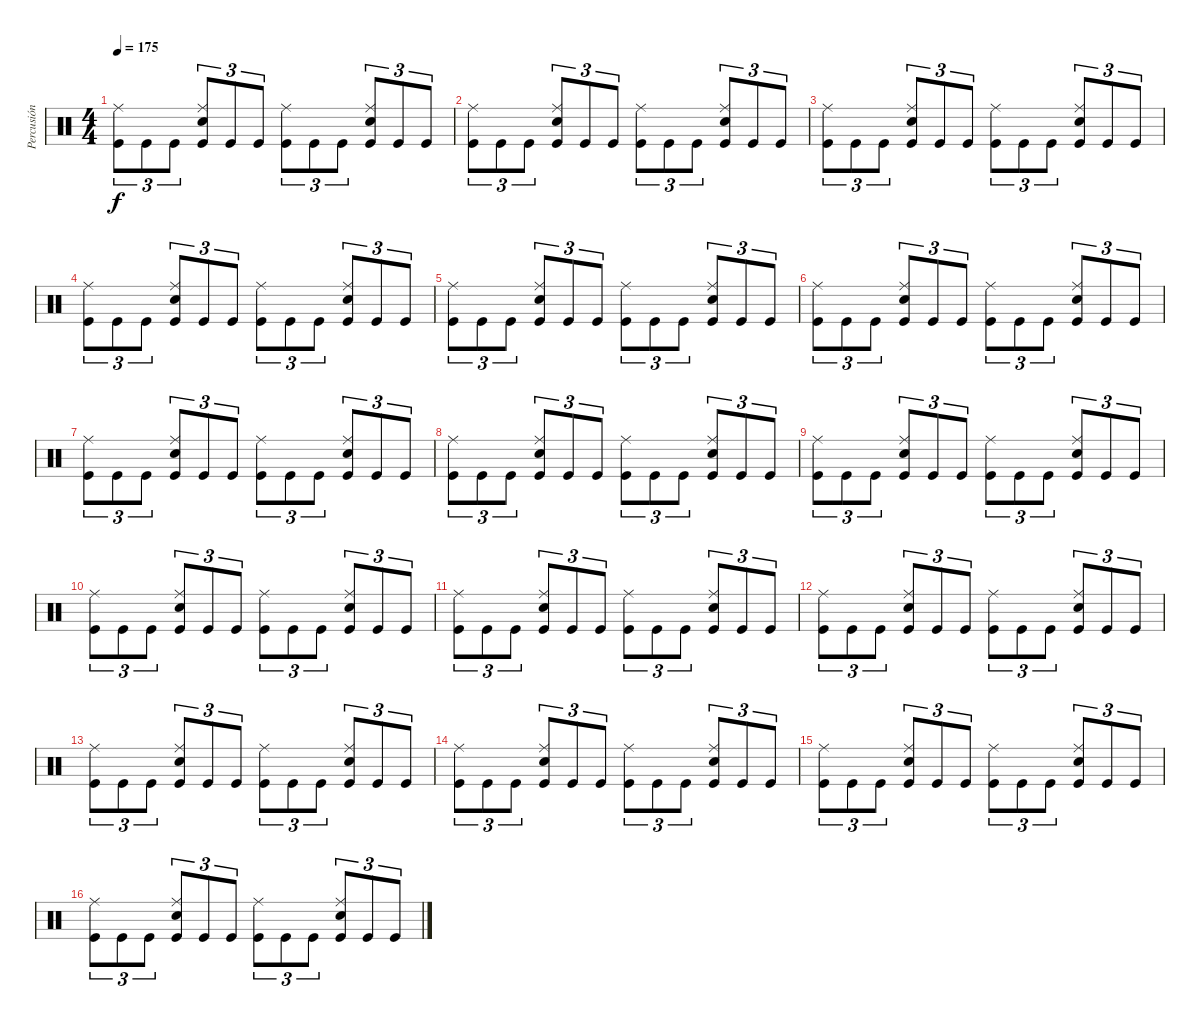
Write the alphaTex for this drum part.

\track ("Percusión" "Percusión") {instrument percussion}
\staff {score}
\articulation defaults
\ts (4 4)
\tempo 175
\clef neutral
\ks c
("Kick (hit)" "Ride (middle)").8{tu (3 2) dy f} "Kick (hit)".8{tu (3 2)} "Kick (hit)".8{tu (3 2)} ("Kick (hit)" "Electric Snare (hit)" "Ride (middle)").8{tu (3 2)} "Kick (hit)".8{tu (3 2)} "Kick (hit)".8{tu (3 2)} ("Kick (hit)" "Ride (middle)").8{tu (3 2)} "Kick (hit)".8{tu (3 2)} "Kick (hit)".8{tu (3 2)} ("Kick (hit)" "Electric Snare (hit)" "Ride (middle)").8{tu (3 2)} "Kick (hit)".8{tu (3 2)} "Kick (hit)".8{tu (3 2)} |
("Kick (hit)" "Ride (middle)").8{tu (3 2)} "Kick (hit)".8{tu (3 2)} "Kick (hit)".8{tu (3 2)} ("Kick (hit)" "Electric Snare (hit)" "Ride (middle)").8{tu (3 2)} "Kick (hit)".8{tu (3 2)} "Kick (hit)".8{tu (3 2)} ("Kick (hit)" "Ride (middle)").8{tu (3 2)} "Kick (hit)".8{tu (3 2)} "Kick (hit)".8{tu (3 2)} ("Kick (hit)" "Electric Snare (hit)" "Ride (middle)").8{tu (3 2)} "Kick (hit)".8{tu (3 2)} "Kick (hit)".8{tu (3 2)} |
("Kick (hit)" "Ride (middle)").8{tu (3 2)} "Kick (hit)".8{tu (3 2)} "Kick (hit)".8{tu (3 2)} ("Kick (hit)" "Electric Snare (hit)" "Ride (middle)").8{tu (3 2)} "Kick (hit)".8{tu (3 2)} "Kick (hit)".8{tu (3 2)} ("Kick (hit)" "Ride (middle)").8{tu (3 2)} "Kick (hit)".8{tu (3 2)} "Kick (hit)".8{tu (3 2)} ("Kick (hit)" "Electric Snare (hit)" "Ride (middle)").8{tu (3 2)} "Kick (hit)".8{tu (3 2)} "Kick (hit)".8{tu (3 2)} |
("Kick (hit)" "Ride (middle)").8{tu (3 2)} "Kick (hit)".8{tu (3 2)} "Kick (hit)".8{tu (3 2)} ("Kick (hit)" "Electric Snare (hit)" "Ride (middle)").8{tu (3 2)} "Kick (hit)".8{tu (3 2)} "Kick (hit)".8{tu (3 2)} ("Kick (hit)" "Ride (middle)").8{tu (3 2)} "Kick (hit)".8{tu (3 2)} "Kick (hit)".8{tu (3 2)} ("Kick (hit)" "Electric Snare (hit)" "Ride (middle)").8{tu (3 2)} "Kick (hit)".8{tu (3 2)} "Kick (hit)".8{tu (3 2)} |
("Kick (hit)" "Ride (middle)").8{tu (3 2)} "Kick (hit)".8{tu (3 2)} "Kick (hit)".8{tu (3 2)} ("Kick (hit)" "Electric Snare (hit)" "Ride (middle)").8{tu (3 2)} "Kick (hit)".8{tu (3 2)} "Kick (hit)".8{tu (3 2)} ("Kick (hit)" "Ride (middle)").8{tu (3 2)} "Kick (hit)".8{tu (3 2)} "Kick (hit)".8{tu (3 2)} ("Kick (hit)" "Electric Snare (hit)" "Ride (middle)").8{tu (3 2)} "Kick (hit)".8{tu (3 2)} "Kick (hit)".8{tu (3 2)} |
("Kick (hit)" "Ride (middle)").8{tu (3 2)} "Kick (hit)".8{tu (3 2)} "Kick (hit)".8{tu (3 2)} ("Kick (hit)" "Electric Snare (hit)" "Ride (middle)").8{tu (3 2)} "Kick (hit)".8{tu (3 2)} "Kick (hit)".8{tu (3 2)} ("Kick (hit)" "Ride (middle)").8{tu (3 2)} "Kick (hit)".8{tu (3 2)} "Kick (hit)".8{tu (3 2)} ("Kick (hit)" "Electric Snare (hit)" "Ride (middle)").8{tu (3 2)} "Kick (hit)".8{tu (3 2)} "Kick (hit)".8{tu (3 2)} |
("Kick (hit)" "Ride (middle)").8{tu (3 2)} "Kick (hit)".8{tu (3 2)} "Kick (hit)".8{tu (3 2)} ("Kick (hit)" "Electric Snare (hit)" "Ride (middle)").8{tu (3 2)} "Kick (hit)".8{tu (3 2)} "Kick (hit)".8{tu (3 2)} ("Kick (hit)" "Ride (middle)").8{tu (3 2)} "Kick (hit)".8{tu (3 2)} "Kick (hit)".8{tu (3 2)} ("Kick (hit)" "Electric Snare (hit)" "Ride (middle)").8{tu (3 2)} "Kick (hit)".8{tu (3 2)} "Kick (hit)".8{tu (3 2)} |
("Kick (hit)" "Ride (middle)").8{tu (3 2)} "Kick (hit)".8{tu (3 2)} "Kick (hit)".8{tu (3 2)} ("Kick (hit)" "Electric Snare (hit)" "Ride (middle)").8{tu (3 2)} "Kick (hit)".8{tu (3 2)} "Kick (hit)".8{tu (3 2)} ("Kick (hit)" "Ride (middle)").8{tu (3 2)} "Kick (hit)".8{tu (3 2)} "Kick (hit)".8{tu (3 2)} ("Kick (hit)" "Electric Snare (hit)" "Ride (middle)").8{tu (3 2)} "Kick (hit)".8{tu (3 2)} "Kick (hit)".8{tu (3 2)} |
("Kick (hit)" "Ride (middle)").8{tu (3 2)} "Kick (hit)".8{tu (3 2)} "Kick (hit)".8{tu (3 2)} ("Kick (hit)" "Electric Snare (hit)" "Ride (middle)").8{tu (3 2)} "Kick (hit)".8{tu (3 2)} "Kick (hit)".8{tu (3 2)} ("Kick (hit)" "Ride (middle)").8{tu (3 2)} "Kick (hit)".8{tu (3 2)} "Kick (hit)".8{tu (3 2)} ("Kick (hit)" "Electric Snare (hit)" "Ride (middle)").8{tu (3 2)} "Kick (hit)".8{tu (3 2)} "Kick (hit)".8{tu (3 2)} |
("Kick (hit)" "Ride (middle)").8{tu (3 2)} "Kick (hit)".8{tu (3 2)} "Kick (hit)".8{tu (3 2)} ("Kick (hit)" "Electric Snare (hit)" "Ride (middle)").8{tu (3 2)} "Kick (hit)".8{tu (3 2)} "Kick (hit)".8{tu (3 2)} ("Kick (hit)" "Ride (middle)").8{tu (3 2)} "Kick (hit)".8{tu (3 2)} "Kick (hit)".8{tu (3 2)} ("Kick (hit)" "Electric Snare (hit)" "Ride (middle)").8{tu (3 2)} "Kick (hit)".8{tu (3 2)} "Kick (hit)".8{tu (3 2)} |
("Kick (hit)" "Ride (middle)").8{tu (3 2)} "Kick (hit)".8{tu (3 2)} "Kick (hit)".8{tu (3 2)} ("Kick (hit)" "Electric Snare (hit)" "Ride (middle)").8{tu (3 2)} "Kick (hit)".8{tu (3 2)} "Kick (hit)".8{tu (3 2)} ("Kick (hit)" "Ride (middle)").8{tu (3 2)} "Kick (hit)".8{tu (3 2)} "Kick (hit)".8{tu (3 2)} ("Kick (hit)" "Electric Snare (hit)" "Ride (middle)").8{tu (3 2)} "Kick (hit)".8{tu (3 2)} "Kick (hit)".8{tu (3 2)} |
("Kick (hit)" "Ride (middle)").8{tu (3 2)} "Kick (hit)".8{tu (3 2)} "Kick (hit)".8{tu (3 2)} ("Kick (hit)" "Electric Snare (hit)" "Ride (middle)").8{tu (3 2)} "Kick (hit)".8{tu (3 2)} "Kick (hit)".8{tu (3 2)} ("Kick (hit)" "Ride (middle)").8{tu (3 2)} "Kick (hit)".8{tu (3 2)} "Kick (hit)".8{tu (3 2)} ("Kick (hit)" "Electric Snare (hit)" "Ride (middle)").8{tu (3 2)} "Kick (hit)".8{tu (3 2)} "Kick (hit)".8{tu (3 2)} |
("Kick (hit)" "Ride (middle)").8{tu (3 2)} "Kick (hit)".8{tu (3 2)} "Kick (hit)".8{tu (3 2)} ("Kick (hit)" "Electric Snare (hit)" "Ride (middle)").8{tu (3 2)} "Kick (hit)".8{tu (3 2)} "Kick (hit)".8{tu (3 2)} ("Kick (hit)" "Ride (middle)").8{tu (3 2)} "Kick (hit)".8{tu (3 2)} "Kick (hit)".8{tu (3 2)} ("Kick (hit)" "Electric Snare (hit)" "Ride (middle)").8{tu (3 2)} "Kick (hit)".8{tu (3 2)} "Kick (hit)".8{tu (3 2)} |
("Kick (hit)" "Ride (middle)").8{tu (3 2)} "Kick (hit)".8{tu (3 2)} "Kick (hit)".8{tu (3 2)} ("Kick (hit)" "Electric Snare (hit)" "Ride (middle)").8{tu (3 2)} "Kick (hit)".8{tu (3 2)} "Kick (hit)".8{tu (3 2)} ("Kick (hit)" "Ride (middle)").8{tu (3 2)} "Kick (hit)".8{tu (3 2)} "Kick (hit)".8{tu (3 2)} ("Kick (hit)" "Electric Snare (hit)" "Ride (middle)").8{tu (3 2)} "Kick (hit)".8{tu (3 2)} "Kick (hit)".8{tu (3 2)} |
("Kick (hit)" "Ride (middle)").8{tu (3 2)} "Kick (hit)".8{tu (3 2)} "Kick (hit)".8{tu (3 2)} ("Kick (hit)" "Electric Snare (hit)" "Ride (middle)").8{tu (3 2)} "Kick (hit)".8{tu (3 2)} "Kick (hit)".8{tu (3 2)} ("Kick (hit)" "Ride (middle)").8{tu (3 2)} "Kick (hit)".8{tu (3 2)} "Kick (hit)".8{tu (3 2)} ("Kick (hit)" "Electric Snare (hit)" "Ride (middle)").8{tu (3 2)} "Kick (hit)".8{tu (3 2)} "Kick (hit)".8{tu (3 2)} |
("Kick (hit)" "Ride (middle)").8{tu (3 2)} "Kick (hit)".8{tu (3 2)} "Kick (hit)".8{tu (3 2)} ("Kick (hit)" "Electric Snare (hit)" "Ride (middle)").8{tu (3 2)} "Kick (hit)".8{tu (3 2)} "Kick (hit)".8{tu (3 2)} ("Kick (hit)" "Ride (middle)").8{tu (3 2)} "Kick (hit)".8{tu (3 2)} "Kick (hit)".8{tu (3 2)} ("Kick (hit)" "Electric Snare (hit)" "Ride (middle)").8{tu (3 2)} "Kick (hit)".8{tu (3 2)} "Kick (hit)".8{tu (3 2)}
